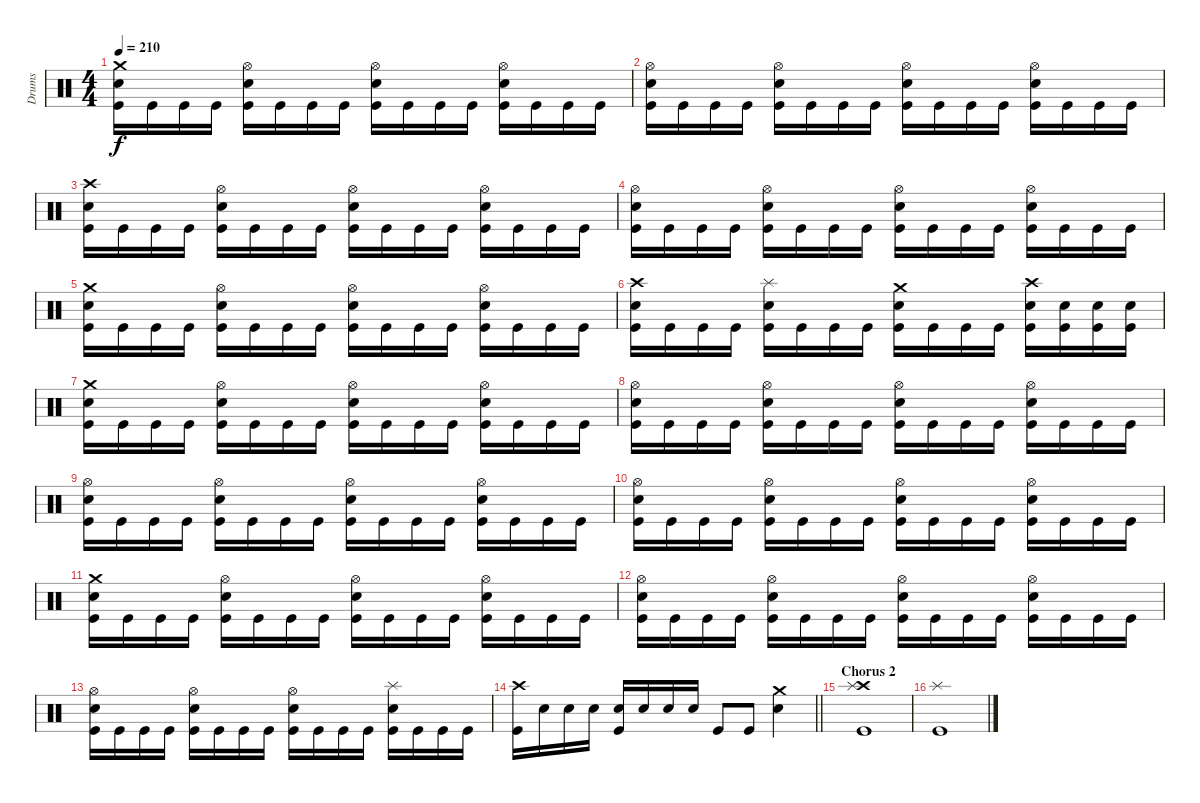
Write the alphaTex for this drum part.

\track ("Drums" "Drums") {instrument percussion}
\staff {score}
\articulation defaults
\ts (4 4)
\tempo 210
\clef neutral
\ks c
("Crash medium (hit)" "Electric Snare (hit)" "Kick (hit)").16{dy f} "Kick (hit)".16 "Kick (hit)".16 "Kick (hit)".16 ("Hi-Hat (open)" "Electric Snare (hit)" "Kick (hit)").16 "Kick (hit)".16 "Kick (hit)".16 "Kick (hit)".16 ("Hi-Hat (open)" "Electric Snare (hit)" "Kick (hit)").16 "Kick (hit)".16 "Kick (hit)".16 "Kick (hit)".16 ("Hi-Hat (open)" "Electric Snare (hit)" "Kick (hit)").16 "Kick (hit)".16 "Kick (hit)".16 "Kick (hit)".16 |
("Hi-Hat (open)" "Electric Snare (hit)" "Kick (hit)").16 "Kick (hit)".16 "Kick (hit)".16 "Kick (hit)".16 ("Hi-Hat (open)" "Electric Snare (hit)" "Kick (hit)").16 "Kick (hit)".16 "Kick (hit)".16 "Kick (hit)".16 ("Hi-Hat (open)" "Electric Snare (hit)" "Kick (hit)").16 "Kick (hit)".16 "Kick (hit)".16 "Kick (hit)".16 ("Hi-Hat (open)" "Electric Snare (hit)" "Kick (hit)").16 "Kick (hit)".16 "Kick (hit)".16 "Kick (hit)".16 |
("Crash high (hit)" "Electric Snare (hit)" "Kick (hit)").16 "Kick (hit)".16 "Kick (hit)".16 "Kick (hit)".16 ("Hi-Hat (open)" "Electric Snare (hit)" "Kick (hit)").16 "Kick (hit)".16 "Kick (hit)".16 "Kick (hit)".16 ("Hi-Hat (open)" "Electric Snare (hit)" "Kick (hit)").16 "Kick (hit)".16 "Kick (hit)".16 "Kick (hit)".16 ("Hi-Hat (open)" "Electric Snare (hit)" "Kick (hit)").16 "Kick (hit)".16 "Kick (hit)".16 "Kick (hit)".16 |
("Hi-Hat (open)" "Electric Snare (hit)" "Kick (hit)").16 "Kick (hit)".16 "Kick (hit)".16 "Kick (hit)".16 ("Hi-Hat (open)" "Electric Snare (hit)" "Kick (hit)").16 "Kick (hit)".16 "Kick (hit)".16 "Kick (hit)".16 ("Hi-Hat (open)" "Electric Snare (hit)" "Kick (hit)").16 "Kick (hit)".16 "Kick (hit)".16 "Kick (hit)".16 ("Hi-Hat (open)" "Electric Snare (hit)" "Kick (hit)").16 "Kick (hit)".16 "Kick (hit)".16 "Kick (hit)".16 |
("Crash medium (hit)" "Electric Snare (hit)" "Kick (hit)").16 "Kick (hit)".16 "Kick (hit)".16 "Kick (hit)".16 ("Hi-Hat (open)" "Electric Snare (hit)" "Kick (hit)").16 "Kick (hit)".16 "Kick (hit)".16 "Kick (hit)".16 ("Hi-Hat (open)" "Electric Snare (hit)" "Kick (hit)").16 "Kick (hit)".16 "Kick (hit)".16 "Kick (hit)".16 ("Hi-Hat (open)" "Electric Snare (hit)" "Kick (hit)").16 "Kick (hit)".16 "Kick (hit)".16 "Kick (hit)".16 |
("Crash high (hit)" "Electric Snare (hit)" "Kick (hit)").16 "Kick (hit)".16 "Kick (hit)".16 "Kick (hit)".16 ("Splash (hit)" "Electric Snare (hit)" "Kick (hit)").16 "Kick (hit)".16 "Kick (hit)".16 "Kick (hit)".16 ("Crash medium (hit)" "Electric Snare (hit)" "Kick (hit)").16 "Kick (hit)".16 "Kick (hit)".16 "Kick (hit)".16 ("Crash high (hit)" "Electric Snare (hit)" "Kick (hit)").16 ("Electric Snare (hit)" "Kick (hit)").16 ("Electric Snare (hit)" "Kick (hit)").16 ("Electric Snare (hit)" "Kick (hit)").16 |
("Crash medium (hit)" "Electric Snare (hit)" "Kick (hit)").16 "Kick (hit)".16 "Kick (hit)".16 "Kick (hit)".16 ("Hi-Hat (open)" "Electric Snare (hit)" "Kick (hit)").16 "Kick (hit)".16 "Kick (hit)".16 "Kick (hit)".16 ("Hi-Hat (open)" "Electric Snare (hit)" "Kick (hit)").16 "Kick (hit)".16 "Kick (hit)".16 "Kick (hit)".16 ("Hi-Hat (open)" "Electric Snare (hit)" "Kick (hit)").16 "Kick (hit)".16 "Kick (hit)".16 "Kick (hit)".16 |
("Hi-Hat (open)" "Electric Snare (hit)" "Kick (hit)").16 "Kick (hit)".16 "Kick (hit)".16 "Kick (hit)".16 ("Hi-Hat (open)" "Electric Snare (hit)" "Kick (hit)").16 "Kick (hit)".16 "Kick (hit)".16 "Kick (hit)".16 ("Hi-Hat (open)" "Electric Snare (hit)" "Kick (hit)").16 "Kick (hit)".16 "Kick (hit)".16 "Kick (hit)".16 ("Hi-Hat (open)" "Electric Snare (hit)" "Kick (hit)").16 "Kick (hit)".16 "Kick (hit)".16 "Kick (hit)".16 |
("Hi-Hat (open)" "Electric Snare (hit)" "Kick (hit)").16 "Kick (hit)".16 "Kick (hit)".16 "Kick (hit)".16 ("Hi-Hat (open)" "Electric Snare (hit)" "Kick (hit)").16 "Kick (hit)".16 "Kick (hit)".16 "Kick (hit)".16 ("Hi-Hat (open)" "Electric Snare (hit)" "Kick (hit)").16 "Kick (hit)".16 "Kick (hit)".16 "Kick (hit)".16 ("Hi-Hat (open)" "Electric Snare (hit)" "Kick (hit)").16 "Kick (hit)".16 "Kick (hit)".16 "Kick (hit)".16 |
("Hi-Hat (open)" "Electric Snare (hit)" "Kick (hit)").16 "Kick (hit)".16 "Kick (hit)".16 "Kick (hit)".16 ("Hi-Hat (open)" "Electric Snare (hit)" "Kick (hit)").16 "Kick (hit)".16 "Kick (hit)".16 "Kick (hit)".16 ("Hi-Hat (open)" "Electric Snare (hit)" "Kick (hit)").16 "Kick (hit)".16 "Kick (hit)".16 "Kick (hit)".16 ("Hi-Hat (open)" "Electric Snare (hit)" "Kick (hit)").16 "Kick (hit)".16 "Kick (hit)".16 "Kick (hit)".16 |
("Crash medium (hit)" "Electric Snare (hit)" "Kick (hit)").16 "Kick (hit)".16 "Kick (hit)".16 "Kick (hit)".16 ("Hi-Hat (open)" "Electric Snare (hit)" "Kick (hit)").16 "Kick (hit)".16 "Kick (hit)".16 "Kick (hit)".16 ("Hi-Hat (open)" "Electric Snare (hit)" "Kick (hit)").16 "Kick (hit)".16 "Kick (hit)".16 "Kick (hit)".16 ("Hi-Hat (open)" "Electric Snare (hit)" "Kick (hit)").16 "Kick (hit)".16 "Kick (hit)".16 "Kick (hit)".16 |
("Hi-Hat (open)" "Electric Snare (hit)" "Kick (hit)").16 "Kick (hit)".16 "Kick (hit)".16 "Kick (hit)".16 ("Hi-Hat (open)" "Electric Snare (hit)" "Kick (hit)").16 "Kick (hit)".16 "Kick (hit)".16 "Kick (hit)".16 ("Hi-Hat (open)" "Electric Snare (hit)" "Kick (hit)").16 "Kick (hit)".16 "Kick (hit)".16 "Kick (hit)".16 ("Hi-Hat (open)" "Electric Snare (hit)" "Kick (hit)").16 "Kick (hit)".16 "Kick (hit)".16 "Kick (hit)".16 |
("Hi-Hat (open)" "Electric Snare (hit)" "Kick (hit)").16 "Kick (hit)".16 "Kick (hit)".16 "Kick (hit)".16 ("Hi-Hat (open)" "Electric Snare (hit)" "Kick (hit)").16 "Kick (hit)".16 "Kick (hit)".16 "Kick (hit)".16 ("Hi-Hat (open)" "Electric Snare (hit)" "Kick (hit)").16 "Kick (hit)".16 "Kick (hit)".16 "Kick (hit)".16 ("Splash (hit)" "Electric Snare (hit)" "Kick (hit)").16 "Kick (hit)".16 "Kick (hit)".16 "Kick (hit)".16 |
\barLineRight lightlight
("Crash high (hit)" "Kick (hit)").16 "Snare (hit) 2".16 "Snare (hit) 2".16 "Snare (hit) 2".16 ("Snare (hit) 2" "Kick (hit)").16 "Snare (hit) 2".16 "Snare (hit) 2".16 "Snare (hit) 2".16 "Kick (hit)".8 "Kick (hit)".8 ("Crash medium (hit)" "Electric Snare (hit)").4 |
\section ("" "Chorus 2")
("Crash high (hit)" "Splash (hit)" "Kick (hit)").1 |
("Splash (hit)" "Kick (hit)").1
